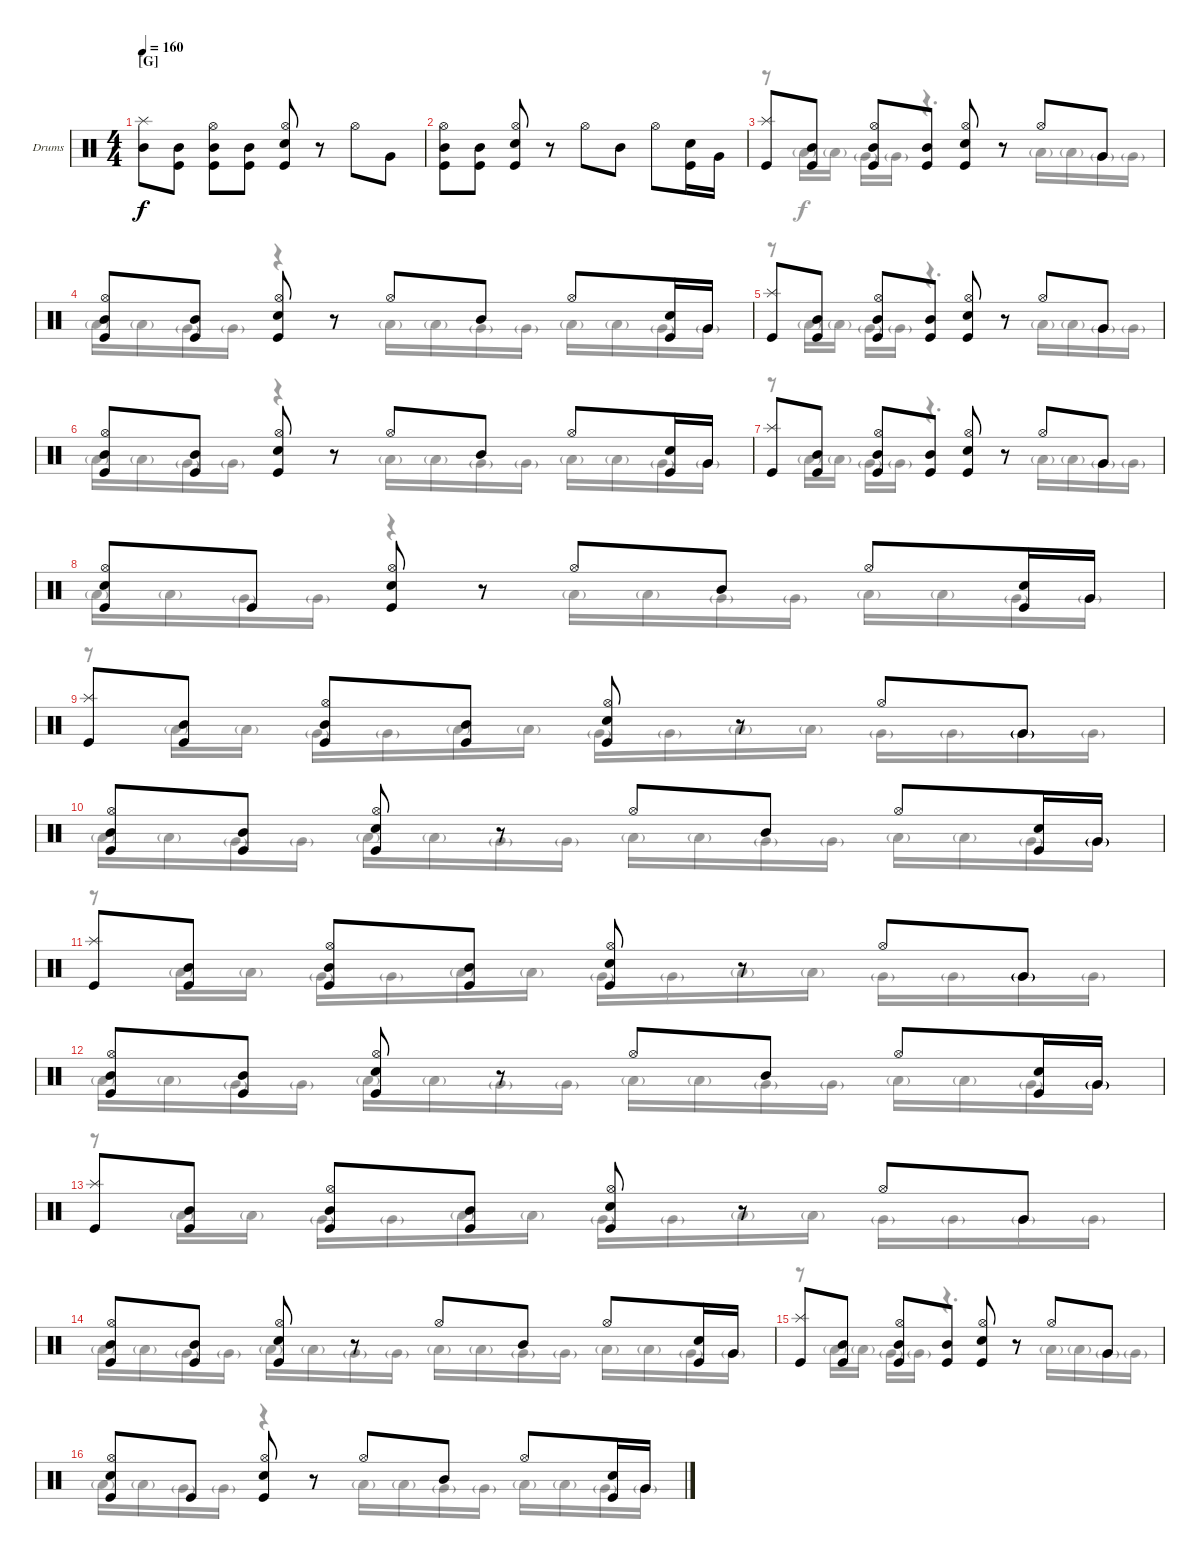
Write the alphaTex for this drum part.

\defaultSystemsLayout 4
\bracketExtendMode groupsimilarinstruments
\firstSystemTrackNameOrientation horizontal
\otherSystemsTrackNameOrientation horizontal
\track ("Drumkit" "Drums") {instrument percussion}
\staff {score}
\articulation defaults
\voice
\ts (4 4)
\section ("G" "")
\tempo 160
\clef neutral
\ks c
("Mid Tom (hit)" "Splash (hit)").8{dy f} ("Kick (hit)" "Mid Tom (hit)").8 ("Kick (hit)" "Mid Tom (hit)" "Hi-Hat (open)").8 ("Kick (hit)" "Mid Tom (hit)").8 ("Kick (hit)" "Snare (hit) 2" "Hi-Hat (open)").8 r.8 "Hi-Hat (open)".8 "Very Low Tom (hit)".8 |
("Kick (hit)" "Mid Tom (hit)" "Hi-Hat (open)").8 ("Kick (hit)" "Mid Tom (hit)").8 ("Kick (hit)" "Snare (hit) 2" "Hi-Hat (open)").8 r.8 "Hi-Hat (open)".8 "Mid Tom (hit)".8 "Hi-Hat (open)".8 ("Kick (hit)" "Snare (hit) 2").16 "Very Low Tom (hit)".16 |
("Splash (hit)" "Kick (hit)").8 ("Kick (hit)" "Mid Tom (hit)").8 ("Kick (hit)" "Mid Tom (hit)" "Hi-Hat (open)").8 ("Kick (hit)" "Mid Tom (hit)").8 ("Kick (hit)" "Snare (hit) 2" "Hi-Hat (open)").8 r.8 "Hi-Hat (open)".8 "Very Low Tom (hit)".8 |
("Kick (hit)" "Mid Tom (hit)" "Hi-Hat (open)").8 ("Kick (hit)" "Mid Tom (hit)").8 ("Kick (hit)" "Snare (hit) 2" "Hi-Hat (open)").8 r.8 "Hi-Hat (open)".8 "Mid Tom (hit)".8 "Hi-Hat (open)".8 ("Kick (hit)" "Snare (hit) 2").16 "Very Low Tom (hit)".16 |
("Splash (hit)" "Kick (hit)").8 ("Kick (hit)" "Mid Tom (hit)").8 ("Kick (hit)" "Mid Tom (hit)" "Hi-Hat (open)").8 ("Kick (hit)" "Mid Tom (hit)").8 ("Kick (hit)" "Snare (hit) 2" "Hi-Hat (open)").8 r.8 "Hi-Hat (open)".8 "Very Low Tom (hit)".8 |
("Kick (hit)" "Mid Tom (hit)" "Hi-Hat (open)").8 ("Kick (hit)" "Mid Tom (hit)").8 ("Kick (hit)" "Snare (hit) 2" "Hi-Hat (open)").8 r.8 "Hi-Hat (open)".8 "Mid Tom (hit)".8 "Hi-Hat (open)".8 ("Kick (hit)" "Snare (hit) 2").16 "Very Low Tom (hit)".16 |
("Splash (hit)" "Kick (hit)").8 ("Kick (hit)" "Mid Tom (hit)").8 ("Kick (hit)" "Mid Tom (hit)" "Hi-Hat (open)").8 ("Kick (hit)" "Mid Tom (hit)").8 ("Kick (hit)" "Snare (hit) 2" "Hi-Hat (open)").8 r.8 "Hi-Hat (open)".8 "Very Low Tom (hit)".8 |
("Kick (hit)" "Hi-Hat (open)" "Snare (hit) 2").8 "Kick (hit)".8 ("Kick (hit)" "Snare (hit) 2" "Hi-Hat (open)").8 r.8 "Hi-Hat (open)".8 "Mid Tom (hit)".8 "Hi-Hat (open)".8 ("Kick (hit)" "Snare (hit) 2").16 "Very Low Tom (hit)".16 |
("Splash (hit)" "Kick (hit)").8 ("Kick (hit)" "Mid Tom (hit)").8 ("Kick (hit)" "Mid Tom (hit)" "Hi-Hat (open)").8 ("Kick (hit)" "Mid Tom (hit)").8 ("Kick (hit)" "Snare (hit) 2" "Hi-Hat (open)").8 r.8 "Hi-Hat (open)".8 "Very Low Tom (hit)"{g}.8 |
("Kick (hit)" "Mid Tom (hit)" "Hi-Hat (open)").8 ("Kick (hit)" "Mid Tom (hit)").8 ("Kick (hit)" "Snare (hit) 2" "Hi-Hat (open)").8 r.8 "Hi-Hat (open)".8 "Mid Tom (hit)".8 "Hi-Hat (open)".8 ("Kick (hit)" "Snare (hit) 2").16 "Very Low Tom (hit)"{g}.16 |
("Splash (hit)" "Kick (hit)").8 ("Kick (hit)" "Mid Tom (hit)").8 ("Kick (hit)" "Mid Tom (hit)" "Hi-Hat (open)").8 ("Kick (hit)" "Mid Tom (hit)").8 ("Kick (hit)" "Snare (hit) 2" "Hi-Hat (open)").8 r.8 "Hi-Hat (open)".8 "Very Low Tom (hit)"{g}.8 |
("Kick (hit)" "Mid Tom (hit)" "Hi-Hat (open)").8 ("Kick (hit)" "Mid Tom (hit)").8 ("Kick (hit)" "Snare (hit) 2" "Hi-Hat (open)").8 r.8 "Hi-Hat (open)".8 "Mid Tom (hit)".8 "Hi-Hat (open)".8 ("Kick (hit)" "Snare (hit) 2").16 "Very Low Tom (hit)"{g}.16 |
("Splash (hit)" "Kick (hit)").8 ("Kick (hit)" "Mid Tom (hit)").8 ("Kick (hit)" "Mid Tom (hit)" "Hi-Hat (open)").8 ("Kick (hit)" "Mid Tom (hit)").8 ("Kick (hit)" "Snare (hit) 2" "Hi-Hat (open)").8 r.8 "Hi-Hat (open)".8 "Very Low Tom (hit)".8 |
("Kick (hit)" "Mid Tom (hit)" "Hi-Hat (open)").8 ("Kick (hit)" "Mid Tom (hit)").8 ("Kick (hit)" "Snare (hit) 2" "Hi-Hat (open)").8 r.8 "Hi-Hat (open)".8 "Mid Tom (hit)".8 "Hi-Hat (open)".8 ("Kick (hit)" "Snare (hit) 2").16 "Very Low Tom (hit)".16 |
("Splash (hit)" "Kick (hit)").8 ("Kick (hit)" "Mid Tom (hit)").8 ("Kick (hit)" "Mid Tom (hit)" "Hi-Hat (open)").8 ("Kick (hit)" "Mid Tom (hit)").8 ("Kick (hit)" "Snare (hit) 2" "Hi-Hat (open)").8 r.8 "Hi-Hat (open)".8 "Very Low Tom (hit)".8 |
("Kick (hit)" "Hi-Hat (open)" "Snare (hit) 2").8 "Kick (hit)".8 ("Kick (hit)" "Snare (hit) 2" "Hi-Hat (open)").8 r.8 "Hi-Hat (open)".8 "Mid Tom (hit)".8 "Hi-Hat (open)".8 ("Kick (hit)" "Snare (hit) 2").16 "Very Low Tom (hit)".16
\voice
\clef neutral
\ottava regular
\simile none
\ks c
|
|
r.8 "Low Tom (hit)"{g}.16 "Low Tom (hit)"{g}.16 "Very Low Tom (hit)"{g}.16 "Very Low Tom (hit)"{g}.16 r.4{d} "Low Tom (hit)"{g}.16 "Low Tom (hit)"{g}.16 "Very Low Tom (hit)"{g}.16 "Very Low Tom (hit)"{g}.16 |
"Low Tom (hit)"{g}.16 "Low Tom (hit)"{g}.16 "Very Low Tom (hit)"{g}.16 "Very Low Tom (hit)"{g}.16 r.4 "Low Tom (hit)"{g}.16 "Low Tom (hit)"{g}.16 "Very Low Tom (hit)"{g}.16 "Very Low Tom (hit)"{g}.16 "Low Tom (hit)"{g}.16 "Low Tom (hit)"{g}.16 "Very Low Tom (hit)"{g}.16 "Very Low Tom (hit)"{g}.16 |
r.8 "Low Tom (hit)"{g}.16 "Low Tom (hit)"{g}.16 "Very Low Tom (hit)"{g}.16 "Very Low Tom (hit)"{g}.16 r.4{d} "Low Tom (hit)"{g}.16 "Low Tom (hit)"{g}.16 "Very Low Tom (hit)"{g}.16 "Very Low Tom (hit)"{g}.16 |
"Low Tom (hit)"{g}.16 "Low Tom (hit)"{g}.16 "Very Low Tom (hit)"{g}.16 "Very Low Tom (hit)"{g}.16 r.4 "Low Tom (hit)"{g}.16 "Low Tom (hit)"{g}.16 "Very Low Tom (hit)"{g}.16 "Very Low Tom (hit)"{g}.16 "Low Tom (hit)"{g}.16 "Low Tom (hit)"{g}.16 "Very Low Tom (hit)"{g}.16 "Very Low Tom (hit)"{g}.16 |
r.8 "Low Tom (hit)"{g}.16 "Low Tom (hit)"{g}.16 "Very Low Tom (hit)"{g}.16 "Very Low Tom (hit)"{g}.16 r.4{d} "Low Tom (hit)"{g}.16 "Low Tom (hit)"{g}.16 "Very Low Tom (hit)"{g}.16 "Very Low Tom (hit)"{g}.16 |
"Low Tom (hit)"{g}.16 "Low Tom (hit)"{g}.16 "Very Low Tom (hit)"{g}.16 "Very Low Tom (hit)"{g}.16 r.4 "Low Tom (hit)"{g}.16 "Low Tom (hit)"{g}.16 "Very Low Tom (hit)"{g}.16 "Very Low Tom (hit)"{g}.16 "Low Tom (hit)"{g}.16 "Low Tom (hit)"{g}.16 "Very Low Tom (hit)"{g}.16 "Very Low Tom (hit)"{g}.16 |
r.8 "Low Tom (hit)"{g}.16 "Low Tom (hit)"{g}.16 "Very Low Tom (hit)"{g}.16 "Very Low Tom (hit)"{g}.16 "Low Tom (hit)"{g}.16 "Low Tom (hit)"{g}.16 "Very Low Tom (hit)"{g}.16 "Very Low Tom (hit)"{g}.16 "Low Tom (hit)"{g}.16 "Low Tom (hit)"{g}.16 "Very Low Tom (hit)"{g}.16 "Very Low Tom (hit)"{g}.16 "Very Low Tom (hit)"{g}.16 "Very Low Tom (hit)"{g}.16 |
"Low Tom (hit)"{g}.16 "Low Tom (hit)"{g}.16 "Very Low Tom (hit)"{g}.16 "Very Low Tom (hit)"{g}.16 "Low Tom (hit)"{g}.16 "Low Tom (hit)"{g}.16 "Very Low Tom (hit)"{g}.16 "Very Low Tom (hit)"{g}.16 "Low Tom (hit)"{g}.16 "Low Tom (hit)"{g}.16 "Very Low Tom (hit)"{g}.16 "Very Low Tom (hit)"{g}.16 "Low Tom (hit)"{g}.16 "Low Tom (hit)"{g}.16 "Very Low Tom (hit)"{g}.16 "Very Low Tom (hit)"{g}.16 |
r.8 "Low Tom (hit)"{g}.16 "Low Tom (hit)"{g}.16 "Very Low Tom (hit)"{g}.16 "Very Low Tom (hit)"{g}.16 "Low Tom (hit)"{g}.16 "Low Tom (hit)"{g}.16 "Very Low Tom (hit)"{g}.16 "Very Low Tom (hit)"{g}.16 "Low Tom (hit)"{g}.16 "Low Tom (hit)"{g}.16 "Very Low Tom (hit)"{g}.16 "Very Low Tom (hit)"{g}.16 "Very Low Tom (hit)"{g}.16 "Very Low Tom (hit)"{g}.16 |
"Low Tom (hit)"{g}.16 "Low Tom (hit)"{g}.16 "Very Low Tom (hit)"{g}.16 "Very Low Tom (hit)"{g}.16 "Low Tom (hit)"{g}.16 "Low Tom (hit)"{g}.16 "Very Low Tom (hit)"{g}.16 "Very Low Tom (hit)"{g}.16 "Low Tom (hit)"{g}.16 "Low Tom (hit)"{g}.16 "Very Low Tom (hit)"{g}.16 "Very Low Tom (hit)"{g}.16 "Low Tom (hit)"{g}.16 "Low Tom (hit)"{g}.16 "Very Low Tom (hit)"{g}.16 "Very Low Tom (hit)"{g}.16 |
r.8 "Low Tom (hit)"{g}.16 "Low Tom (hit)"{g}.16 "Very Low Tom (hit)"{g}.16 "Very Low Tom (hit)"{g}.16 "Low Tom (hit)"{g}.16 "Low Tom (hit)"{g}.16 "Very Low Tom (hit)"{g}.16 "Very Low Tom (hit)"{g}.16 "Low Tom (hit)"{g}.16 "Low Tom (hit)"{g}.16 "Very Low Tom (hit)"{g}.16 "Very Low Tom (hit)"{g}.16 "Very Low Tom (hit)"{g}.16 "Very Low Tom (hit)"{g}.16 |
"Low Tom (hit)"{g}.16 "Low Tom (hit)"{g}.16 "Very Low Tom (hit)"{g}.16 "Very Low Tom (hit)"{g}.16 "Low Tom (hit)"{g}.16 "Low Tom (hit)"{g}.16 "Very Low Tom (hit)"{g}.16 "Very Low Tom (hit)"{g}.16 "Low Tom (hit)"{g}.16 "Low Tom (hit)"{g}.16 "Very Low Tom (hit)"{g}.16 "Very Low Tom (hit)"{g}.16 "Low Tom (hit)"{g}.16 "Low Tom (hit)"{g}.16 "Very Low Tom (hit)"{g}.16 "Very Low Tom (hit)"{g}.16 |
r.8 "Low Tom (hit)"{g}.16 "Low Tom (hit)"{g}.16 "Very Low Tom (hit)"{g}.16 "Very Low Tom (hit)"{g}.16 r.4{d} "Low Tom (hit)"{g}.16 "Low Tom (hit)"{g}.16 "Very Low Tom (hit)"{g}.16 "Very Low Tom (hit)"{g}.16 |
"Low Tom (hit)"{g}.16 "Low Tom (hit)"{g}.16 "Very Low Tom (hit)"{g}.16 "Very Low Tom (hit)"{g}.16 r.4 "Low Tom (hit)"{g}.16 "Low Tom (hit)"{g}.16 "Very Low Tom (hit)"{g}.16 "Very Low Tom (hit)"{g}.16 "Low Tom (hit)"{g}.16 "Low Tom (hit)"{g}.16 "Very Low Tom (hit)"{g}.16 "Very Low Tom (hit)"{g}.16
